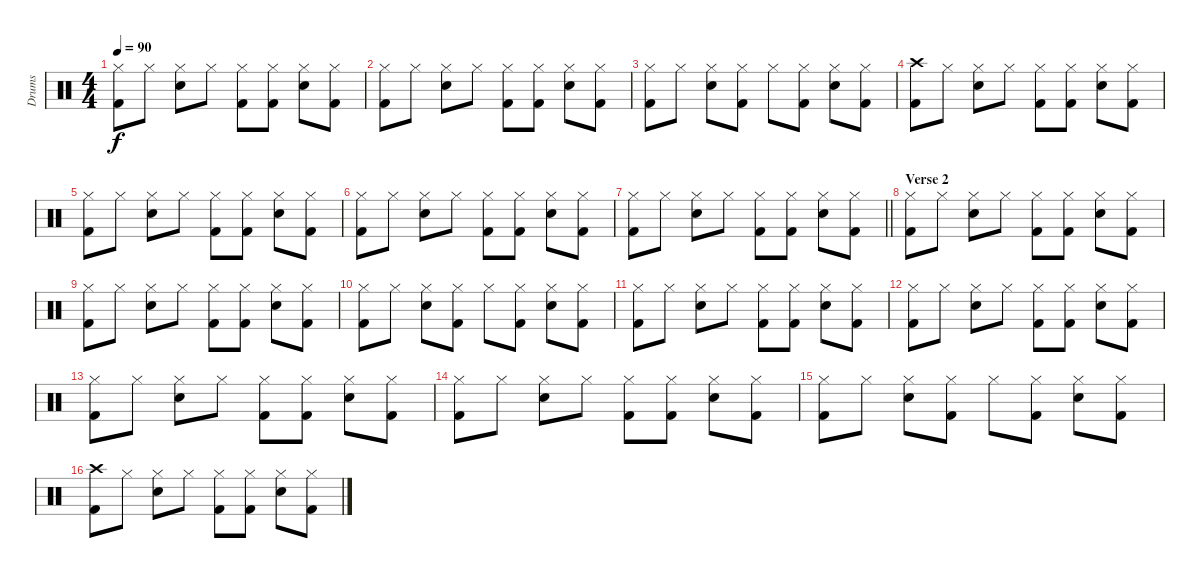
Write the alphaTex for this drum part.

\track ("Drums" "Drums") {instrument percussion}
\staff {score}
\articulation defaults
\ts (4 4)
\tempo 90
\clef neutral
\ks c
("Hi-Hat (closed)" "Kick (hit) 2").8{dy f} "Hi-Hat (closed)".8 ("Hi-Hat (closed)" "Snare (hit) 2").8 "Hi-Hat (closed)".8 ("Hi-Hat (closed)" "Kick (hit) 2").8 ("Hi-Hat (closed)" "Kick (hit) 2").8 ("Hi-Hat (closed)" "Snare (hit) 2").8 ("Hi-Hat (closed)" "Kick (hit) 2").8 |
("Hi-Hat (closed)" "Kick (hit) 2").8 "Hi-Hat (closed)".8 ("Hi-Hat (closed)" "Snare (hit) 2").8 "Hi-Hat (closed)".8 ("Hi-Hat (closed)" "Kick (hit) 2").8 ("Hi-Hat (closed)" "Kick (hit) 2").8 ("Hi-Hat (closed)" "Snare (hit) 2").8 ("Hi-Hat (closed)" "Kick (hit) 2").8 |
("Hi-Hat (closed)" "Kick (hit) 2").8 "Hi-Hat (closed)".8 ("Hi-Hat (closed)" "Snare (hit) 2").8 ("Hi-Hat (closed)" "Kick (hit) 2").8 "Hi-Hat (closed)".8 ("Hi-Hat (closed)" "Kick (hit) 2").8 ("Hi-Hat (closed)" "Snare (hit) 2").8 ("Hi-Hat (closed)" "Kick (hit) 2").8 |
("Crash high (hit)" "Kick (hit) 2").8 "Hi-Hat (closed)".8 ("Hi-Hat (closed)" "Snare (hit) 2").8 "Hi-Hat (closed)".8 ("Hi-Hat (closed)" "Kick (hit) 2").8 ("Hi-Hat (closed)" "Kick (hit) 2").8 ("Hi-Hat (closed)" "Snare (hit) 2").8 ("Hi-Hat (closed)" "Kick (hit) 2").8 |
("Hi-Hat (closed)" "Kick (hit) 2").8 "Hi-Hat (closed)".8 ("Hi-Hat (closed)" "Snare (hit) 2").8 "Hi-Hat (closed)".8 ("Hi-Hat (closed)" "Kick (hit) 2").8 ("Hi-Hat (closed)" "Kick (hit) 2").8 ("Hi-Hat (closed)" "Snare (hit) 2").8 ("Hi-Hat (closed)" "Kick (hit) 2").8 |
("Hi-Hat (closed)" "Kick (hit) 2").8 "Hi-Hat (closed)".8 ("Hi-Hat (closed)" "Snare (hit) 2").8 "Hi-Hat (closed)".8 ("Hi-Hat (closed)" "Kick (hit) 2").8 ("Hi-Hat (closed)" "Kick (hit) 2").8 ("Hi-Hat (closed)" "Snare (hit) 2").8 ("Hi-Hat (closed)" "Kick (hit) 2").8 |
\barLineRight lightlight
("Hi-Hat (closed)" "Kick (hit) 2").8 "Hi-Hat (closed)".8 ("Hi-Hat (closed)" "Snare (hit) 2").8 "Hi-Hat (closed)".8 ("Hi-Hat (closed)" "Kick (hit) 2").8 ("Hi-Hat (closed)" "Kick (hit) 2").8 ("Hi-Hat (closed)" "Snare (hit) 2").8 ("Hi-Hat (closed)" "Kick (hit) 2").8 |
\section ("" "Verse 2")
("Hi-Hat (closed)" "Kick (hit) 2").8 "Hi-Hat (closed)".8 ("Hi-Hat (closed)" "Snare (hit) 2").8 "Hi-Hat (closed)".8 ("Hi-Hat (closed)" "Kick (hit) 2").8 ("Hi-Hat (closed)" "Kick (hit) 2").8 ("Hi-Hat (closed)" "Snare (hit) 2").8 ("Hi-Hat (closed)" "Kick (hit) 2").8 |
("Hi-Hat (closed)" "Kick (hit) 2").8 "Hi-Hat (closed)".8 ("Hi-Hat (closed)" "Snare (hit) 2").8 "Hi-Hat (closed)".8 ("Hi-Hat (closed)" "Kick (hit) 2").8 ("Hi-Hat (closed)" "Kick (hit) 2").8 ("Hi-Hat (closed)" "Snare (hit) 2").8 ("Hi-Hat (closed)" "Kick (hit) 2").8 |
("Hi-Hat (closed)" "Kick (hit) 2").8 "Hi-Hat (closed)".8 ("Hi-Hat (closed)" "Snare (hit) 2").8 ("Hi-Hat (closed)" "Kick (hit) 2").8 "Hi-Hat (closed)".8 ("Hi-Hat (closed)" "Kick (hit) 2").8 ("Hi-Hat (closed)" "Snare (hit) 2").8 ("Hi-Hat (closed)" "Kick (hit) 2").8 |
("Hi-Hat (closed)" "Kick (hit) 2").8 "Hi-Hat (closed)".8 ("Hi-Hat (closed)" "Snare (hit) 2").8 "Hi-Hat (closed)".8 ("Hi-Hat (closed)" "Kick (hit) 2").8 ("Hi-Hat (closed)" "Kick (hit) 2").8 ("Hi-Hat (closed)" "Snare (hit) 2").8 ("Hi-Hat (closed)" "Kick (hit) 2").8 |
("Hi-Hat (closed)" "Kick (hit) 2").8 "Hi-Hat (closed)".8 ("Hi-Hat (closed)" "Snare (hit) 2").8 "Hi-Hat (closed)".8 ("Hi-Hat (closed)" "Kick (hit) 2").8 ("Hi-Hat (closed)" "Kick (hit) 2").8 ("Hi-Hat (closed)" "Snare (hit) 2").8 ("Hi-Hat (closed)" "Kick (hit) 2").8 |
("Hi-Hat (closed)" "Kick (hit) 2").8 "Hi-Hat (closed)".8 ("Hi-Hat (closed)" "Snare (hit) 2").8 "Hi-Hat (closed)".8 ("Hi-Hat (closed)" "Kick (hit) 2").8 ("Hi-Hat (closed)" "Kick (hit) 2").8 ("Hi-Hat (closed)" "Snare (hit) 2").8 ("Hi-Hat (closed)" "Kick (hit) 2").8 |
("Hi-Hat (closed)" "Kick (hit) 2").8 "Hi-Hat (closed)".8 ("Hi-Hat (closed)" "Snare (hit) 2").8 "Hi-Hat (closed)".8 ("Hi-Hat (closed)" "Kick (hit) 2").8 ("Hi-Hat (closed)" "Kick (hit) 2").8 ("Hi-Hat (closed)" "Snare (hit) 2").8 ("Hi-Hat (closed)" "Kick (hit) 2").8 |
("Hi-Hat (closed)" "Kick (hit) 2").8 "Hi-Hat (closed)".8 ("Hi-Hat (closed)" "Snare (hit) 2").8 ("Hi-Hat (closed)" "Kick (hit) 2").8 "Hi-Hat (closed)".8 ("Hi-Hat (closed)" "Kick (hit) 2").8 ("Hi-Hat (closed)" "Snare (hit) 2").8 ("Hi-Hat (closed)" "Kick (hit) 2").8 |
("Crash high (hit)" "Kick (hit) 2").8 "Hi-Hat (closed)".8 ("Hi-Hat (closed)" "Snare (hit) 2").8 "Hi-Hat (closed)".8 ("Hi-Hat (closed)" "Kick (hit) 2").8 ("Hi-Hat (closed)" "Kick (hit) 2").8 ("Hi-Hat (closed)" "Snare (hit) 2").8 ("Hi-Hat (closed)" "Kick (hit) 2").8
